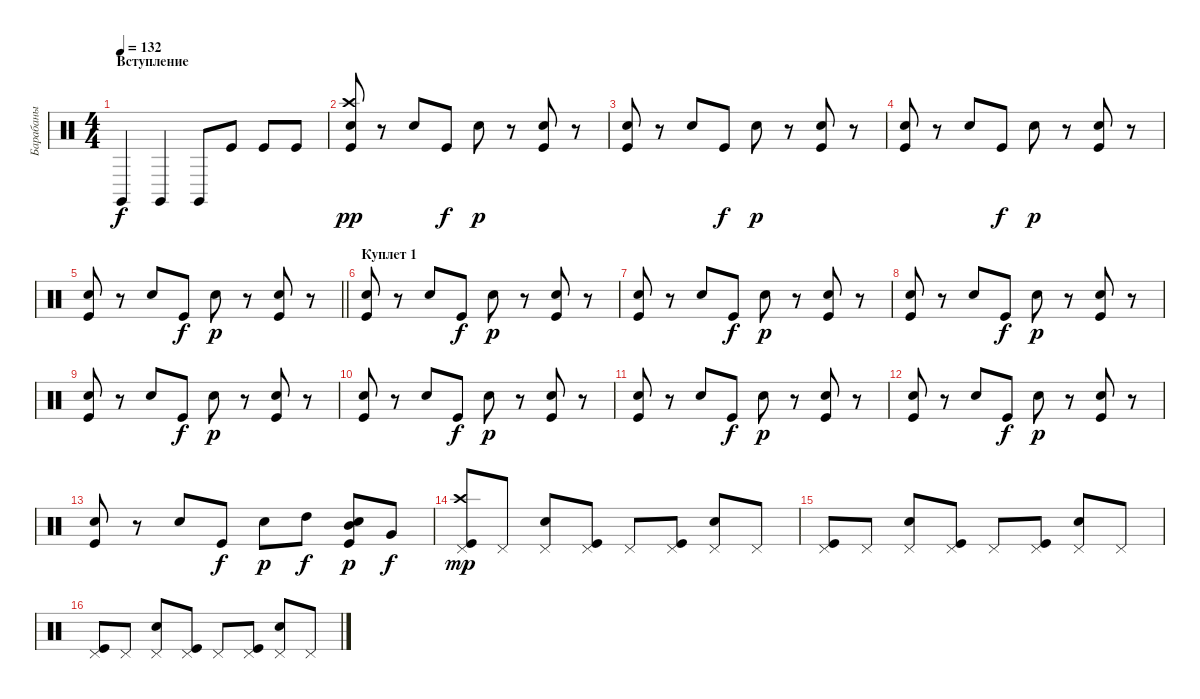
\track ("Барабаны" "Барабаны") {instrument percussion}
\staff {score}
\articulation defaults
\ts (4 4)
\section ("" "Вступление")
\tempo 132
\clef neutral
\ks c "Claves (hit)".4{dy f} "Claves (hit)".4 "Claves (hit)".8 "Kick (hit)".8 "Kick (hit)".8 "Kick (hit)".8
|
("Kick (hit)" "Crash high (hit)" "Snare (hit) 2").8{dy pp} r.8 "Snare (hit) 2".8 "Kick (hit)".8{dy f} "Snare (hit) 2".8{dy p} r.8 ("Kick (hit)" "Snare (hit) 2").8 r.8 |
("Kick (hit)" "Snare (hit) 2").8 r.8 "Snare (hit) 2".8 "Kick (hit)".8{dy f} "Snare (hit) 2".8{dy p} r.8 ("Kick (hit)" "Snare (hit) 2").8 r.8 |
("Kick (hit)" "Snare (hit) 2").8 r.8 "Snare (hit) 2".8 "Kick (hit)".8{dy f} "Snare (hit) 2".8{dy p} r.8 ("Kick (hit)" "Snare (hit) 2").8 r.8 |
\barLineRight lightlight
("Kick (hit)" "Snare (hit) 2").8 r.8 "Snare (hit) 2".8 "Kick (hit)".8{dy f} "Snare (hit) 2".8{dy p} r.8 ("Kick (hit)" "Snare (hit) 2").8 r.8 |
\section ("" "Куплет 1")
("Kick (hit)" "Snare (hit) 2").8 r.8 "Snare (hit) 2".8 "Kick (hit)".8{dy f} "Snare (hit) 2".8{dy p} r.8 ("Kick (hit)" "Snare (hit) 2").8 r.8 |
("Kick (hit)" "Snare (hit) 2").8 r.8 "Snare (hit) 2".8 "Kick (hit)".8{dy f} "Snare (hit) 2".8{dy p} r.8 ("Kick (hit)" "Snare (hit) 2").8 r.8 |
("Kick (hit)" "Snare (hit) 2").8 r.8 "Snare (hit) 2".8 "Kick (hit)".8{dy f} "Snare (hit) 2".8{dy p} r.8 ("Kick (hit)" "Snare (hit) 2").8 r.8 |
("Kick (hit)" "Snare (hit) 2").8 r.8 "Snare (hit) 2".8 "Kick (hit)".8{dy f} "Snare (hit) 2".8{dy p} r.8 ("Kick (hit)" "Snare (hit) 2").8 r.8 |
("Kick (hit)" "Snare (hit) 2").8 r.8 "Snare (hit) 2".8 "Kick (hit)".8{dy f} "Snare (hit) 2".8{dy p} r.8 ("Kick (hit)" "Snare (hit) 2").8 r.8 |
("Kick (hit)" "Snare (hit) 2").8 r.8 "Snare (hit) 2".8 "Kick (hit)".8{dy f} "Snare (hit) 2".8{dy p} r.8 ("Kick (hit)" "Snare (hit) 2").8 r.8 |
("Kick (hit)" "Snare (hit) 2").8 r.8 "Snare (hit) 2".8 "Kick (hit)".8{dy f} "Snare (hit) 2".8{dy p} r.8 ("Kick (hit)" "Snare (hit) 2").8 r.8 |
("Kick (hit)" "Snare (hit) 2").8 r.8 "Snare (hit) 2".8 "Kick (hit)".8{dy f} "Snare (hit) 2".8{dy p} "High Tom (hit)".8{dy f} ("Kick (hit)" "Snare (hit) 2" "Mid Tom (hit)").8{dy p} "Very Low Tom (hit)".8{dy f} |
("Kick (hit)" "Pedal Hi-Hat (hit)" "Crash high (hit)").8{dy mp} "Pedal Hi-Hat (hit)".8 ("Snare (hit) 2" "Pedal Hi-Hat (hit)").8 ("Kick (hit)" "Pedal Hi-Hat (hit)").8 "Pedal Hi-Hat (hit)".8 ("Kick (hit)" "Pedal Hi-Hat (hit)").8 ("Snare (hit) 2" "Pedal Hi-Hat (hit)").8 "Pedal Hi-Hat (hit)".8 |
("Kick (hit)" "Pedal Hi-Hat (hit)").8 "Pedal Hi-Hat (hit)".8 ("Snare (hit) 2" "Pedal Hi-Hat (hit)").8 ("Kick (hit)" "Pedal Hi-Hat (hit)").8 "Pedal Hi-Hat (hit)".8 ("Kick (hit)" "Pedal Hi-Hat (hit)").8 ("Snare (hit) 2" "Pedal Hi-Hat (hit)").8 "Pedal Hi-Hat (hit)".8 |
("Kick (hit)" "Pedal Hi-Hat (hit)").8 "Pedal Hi-Hat (hit)".8 ("Snare (hit) 2" "Pedal Hi-Hat (hit)").8 ("Kick (hit)" "Pedal Hi-Hat (hit)").8 "Pedal Hi-Hat (hit)".8 ("Kick (hit)" "Pedal Hi-Hat (hit)").8 ("Snare (hit) 2" "Pedal Hi-Hat (hit)").8 "Pedal Hi-Hat (hit)".8
